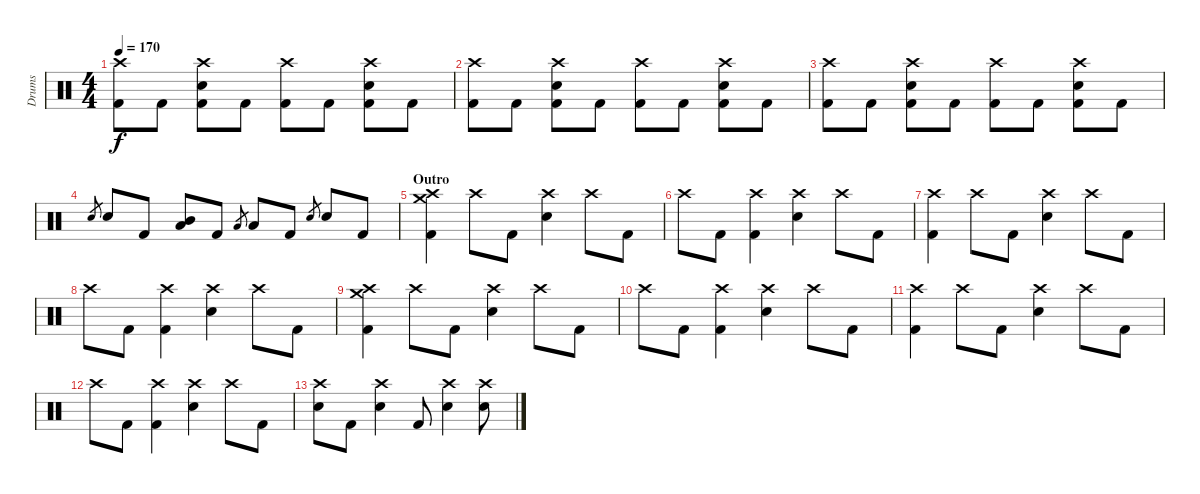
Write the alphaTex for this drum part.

\track ("Drums" "Drums") {instrument percussion}
\staff {score}
\articulation defaults
\ts (4 4)
\tempo 170
\clef neutral
\ks c
("Crash high (hit)" "Kick (hit) 2").8{dy f} "Kick (hit) 2".8 ("Crash high (hit)" "Snare (hit) 2" "Kick (hit) 2").8 "Kick (hit) 2".8 ("Crash high (hit)" "Kick (hit) 2").8 "Kick (hit) 2".8 ("Crash high (hit)" "Snare (hit) 2" "Kick (hit) 2").8 "Kick (hit) 2".8 |
("Crash high (hit)" "Kick (hit) 2").8 "Kick (hit) 2".8 ("Crash high (hit)" "Snare (hit) 2" "Kick (hit) 2").8 "Kick (hit) 2".8 ("Crash high (hit)" "Kick (hit) 2").8 "Kick (hit) 2".8 ("Crash high (hit)" "Snare (hit) 2" "Kick (hit) 2").8 "Kick (hit) 2".8 |
("Crash high (hit)" "Kick (hit) 2").8 "Kick (hit) 2".8 ("Crash high (hit)" "Snare (hit) 2" "Kick (hit) 2").8 "Kick (hit) 2".8 ("Crash high (hit)" "Kick (hit) 2").8 "Kick (hit) 2".8 ("Crash high (hit)" "Snare (hit) 2" "Kick (hit) 2").8 "Kick (hit) 2".8 |
"Snare (hit) 2".8{gr} "Snare (hit) 2".8 "Kick (hit) 2".8 ("Mid Tom (hit)" "Low Floor Tom (hit)").8 "Kick (hit) 2".8 "Low Floor Tom (hit)".8{gr} "Low Floor Tom (hit)".8 "Kick (hit) 2".8 "Snare (hit) 2".8{gr} "Snare (hit) 2".8 "Kick (hit) 2".8 |
\section ("" "Outro")
("Crash medium (hit)" "Crash high (hit)" "Kick (hit) 2").4 "Crash high (hit)".8 "Kick (hit) 2".8 ("Crash high (hit)" "Snare (hit) 2").4 "Crash high (hit)".8 "Kick (hit) 2".8 |
"Crash high (hit)".8 "Kick (hit) 2".8 ("Crash high (hit)" "Kick (hit) 2").4 ("Crash high (hit)" "Snare (hit) 2").4 "Crash high (hit)".8 "Kick (hit) 2".8 |
("Crash high (hit)" "Kick (hit) 2").4 "Crash high (hit)".8 "Kick (hit) 2".8 ("Crash high (hit)" "Snare (hit) 2").4 "Crash high (hit)".8 "Kick (hit) 2".8 |
"Crash high (hit)".8 "Kick (hit) 2".8 ("Crash high (hit)" "Kick (hit) 2").4 ("Crash high (hit)" "Snare (hit) 2").4 "Crash high (hit)".8 "Kick (hit) 2".8 |
("Crash medium (hit)" "Crash high (hit)" "Kick (hit) 2").4 "Crash high (hit)".8 "Kick (hit) 2".8 ("Crash high (hit)" "Snare (hit) 2").4 "Crash high (hit)".8 "Kick (hit) 2".8 |
"Crash high (hit)".8 "Kick (hit) 2".8 ("Crash high (hit)" "Kick (hit) 2").4 ("Crash high (hit)" "Snare (hit) 2").4 "Crash high (hit)".8 "Kick (hit) 2".8 |
("Crash high (hit)" "Kick (hit) 2").4 "Crash high (hit)".8 "Kick (hit) 2".8 ("Crash high (hit)" "Snare (hit) 2").4 "Crash high (hit)".8 "Kick (hit) 2".8 |
"Crash high (hit)".8 "Kick (hit) 2".8 ("Crash high (hit)" "Kick (hit) 2").4 ("Crash high (hit)" "Snare (hit) 2").4 "Crash high (hit)".8 "Kick (hit) 2".8 |
("Crash high (hit)" "Snare (hit) 2").8 "Kick (hit) 2".8 ("Crash high (hit)" "Snare (hit) 2").4 "Kick (hit) 2".8 ("Crash high (hit)" "Snare (hit) 2").4 ("Crash high (hit)" "Snare (hit) 2").8
